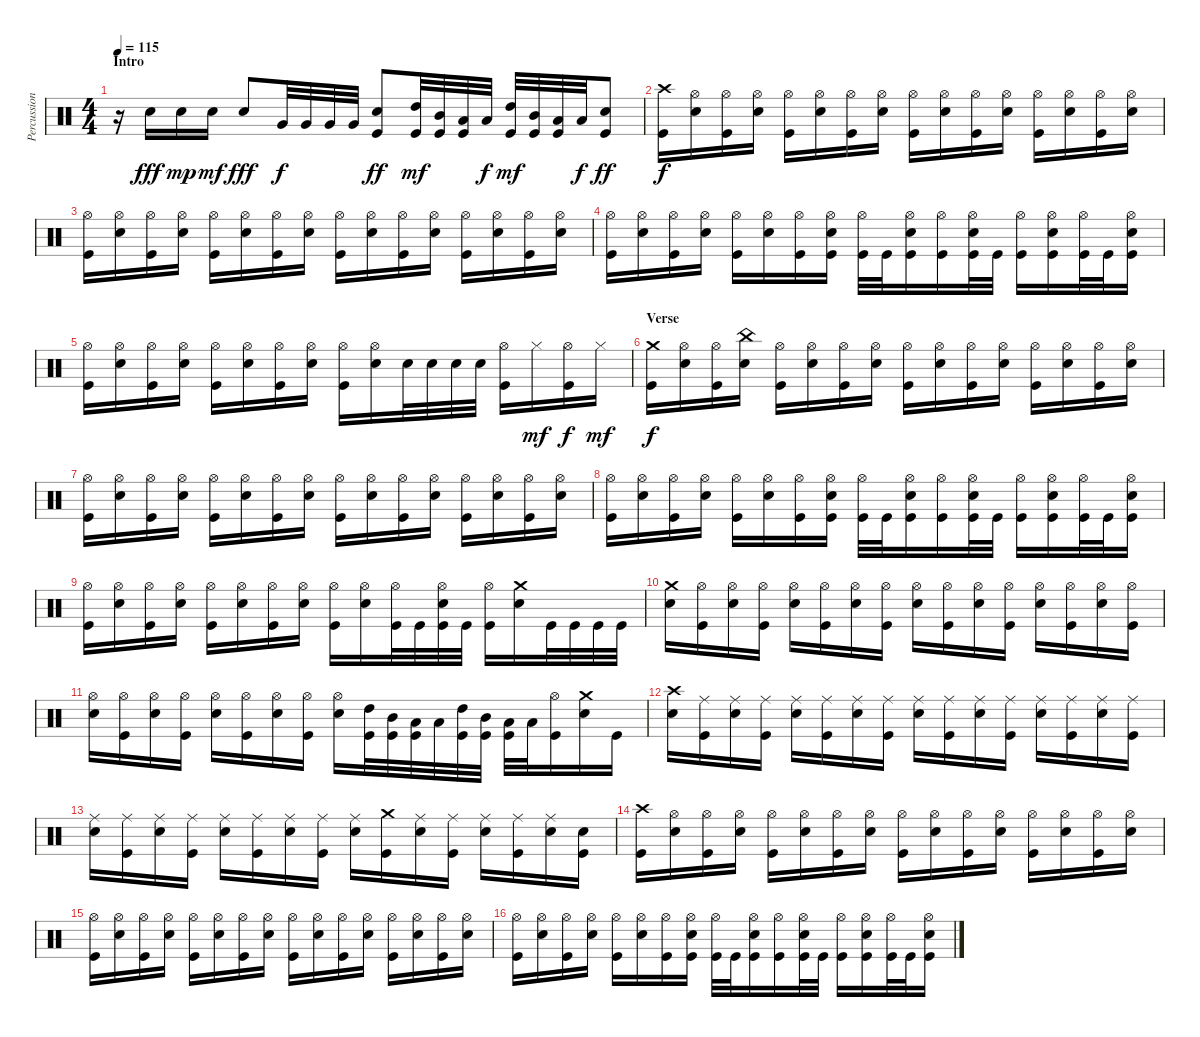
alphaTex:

\track ("Percussion" "Percussion") {instrument percussion}
\staff {score}
\articulation defaults
\ts (4 4)
\section ("" "Intro")
\tempo 115
\clef neutral
\ks c
r.16{dy fff} "Electric Snare (hit)".16 "Electric Snare (hit)".16{dy mp} "Electric Snare (hit)".16{dy mf} "Electric Snare (hit)".8{dy fff} "Very Low Tom (hit)".32{dy f} "Very Low Tom (hit)".32 "Very Low Tom (hit)".32 "Very Low Tom (hit)".32 ("Electric Snare (hit)" "Kick (hit)").8{dy ff} ("High Tom (hit)" "Kick (hit)").32{dy mf} ("Mid Tom (hit)" "Kick (hit)").32 ("Low Tom (hit)" "Kick (hit)").32 "Low Tom (hit)".32{dy f} ("High Tom (hit)" "Kick (hit)").32{dy mf} ("Mid Tom (hit)" "Kick (hit)").32 ("Low Tom (hit)" "Kick (hit)").32 "Low Tom (hit)".32{dy f} ("Electric Snare (hit)" "Kick (hit)").8{dy ff} |
("Crash high (hit)" "Kick (hit)").16{dy f} ("Hi-Hat (open)" "Electric Snare (hit)").16 ("Hi-Hat (open)" "Kick (hit)").16 ("Hi-Hat (open)" "Electric Snare (hit)").16 ("Hi-Hat (open)" "Kick (hit)").16 ("Hi-Hat (open)" "Electric Snare (hit)").16 ("Hi-Hat (open)" "Kick (hit)").16 ("Hi-Hat (open)" "Electric Snare (hit)").16 ("Hi-Hat (open)" "Kick (hit)").16 ("Hi-Hat (open)" "Electric Snare (hit)").16 ("Hi-Hat (open)" "Kick (hit)").16 ("Hi-Hat (open)" "Electric Snare (hit)").16 ("Hi-Hat (open)" "Kick (hit)").16 ("Hi-Hat (open)" "Electric Snare (hit)").16 ("Hi-Hat (open)" "Kick (hit)").16 ("Hi-Hat (open)" "Electric Snare (hit)").16 |
("Hi-Hat (open)" "Kick (hit)").16 ("Hi-Hat (open)" "Electric Snare (hit)").16 ("Hi-Hat (open)" "Kick (hit)").16 ("Hi-Hat (open)" "Electric Snare (hit)").16 ("Hi-Hat (open)" "Kick (hit)").16 ("Hi-Hat (open)" "Electric Snare (hit)").16 ("Hi-Hat (open)" "Kick (hit)").16 ("Hi-Hat (open)" "Electric Snare (hit)").16 ("Hi-Hat (open)" "Kick (hit)").16 ("Hi-Hat (open)" "Electric Snare (hit)").16 ("Hi-Hat (open)" "Kick (hit)").16 ("Hi-Hat (open)" "Electric Snare (hit)").16 ("Hi-Hat (open)" "Kick (hit)").16 ("Hi-Hat (open)" "Electric Snare (hit)").16 ("Hi-Hat (open)" "Kick (hit)").16 ("Hi-Hat (open)" "Electric Snare (hit)").16 |
("Hi-Hat (open)" "Kick (hit)").16 ("Hi-Hat (open)" "Electric Snare (hit)").16 ("Hi-Hat (open)" "Kick (hit)").16 ("Hi-Hat (open)" "Electric Snare (hit)").16 ("Hi-Hat (open)" "Kick (hit)").16 ("Hi-Hat (open)" "Electric Snare (hit)").16 ("Hi-Hat (open)" "Kick (hit)").16 ("Hi-Hat (open)" "Electric Snare (hit)" "Kick (hit)").16 ("Hi-Hat (open)" "Kick (hit)").32 "Kick (hit)".32 ("Hi-Hat (open)" "Electric Snare (hit)" "Kick (hit)").16 ("Hi-Hat (open)" "Kick (hit)").16 ("Hi-Hat (open)" "Electric Snare (hit)" "Kick (hit)").32 "Kick (hit)".32 ("Hi-Hat (open)" "Kick (hit)").16 ("Hi-Hat (open)" "Electric Snare (hit)" "Kick (hit)").16 ("Hi-Hat (open)" "Kick (hit)").32 "Kick (hit)".32 ("Hi-Hat (open)" "Electric Snare (hit)" "Kick (hit)").16 |
("Hi-Hat (open)" "Kick (hit)").16 ("Hi-Hat (open)" "Electric Snare (hit)").16 ("Hi-Hat (open)" "Kick (hit)").16 ("Hi-Hat (open)" "Electric Snare (hit)").16 ("Hi-Hat (open)" "Kick (hit)").16 ("Hi-Hat (open)" "Electric Snare (hit)").16 ("Hi-Hat (open)" "Kick (hit)").16 ("Hi-Hat (open)" "Electric Snare (hit)").16 ("Hi-Hat (open)" "Kick (hit)").16 ("Hi-Hat (open)" "Electric Snare (hit)").16 "Electric Snare (hit)".32 "Electric Snare (hit)".32 "Electric Snare (hit)".32 "Electric Snare (hit)".32 ("Hi-Hat (open)" "Kick (hit)").16 "Hi-Hat (closed)".16{dy mf} ("Hi-Hat (open)" "Kick (hit)").16{dy f} "Hi-Hat (closed)".16{dy mf} |
\section ("" "Verse")
("Crash medium (hit)" "Kick (hit)").16{dy f} ("Hi-Hat (open)" "Electric Snare (hit)").16 ("Hi-Hat (open)" "Kick (hit)").16 ("China (hit)" "Electric Snare (hit)").16 ("Hi-Hat (open)" "Kick (hit)").16 ("Hi-Hat (open)" "Electric Snare (hit)").16 ("Hi-Hat (open)" "Kick (hit)").16 ("Hi-Hat (open)" "Electric Snare (hit)").16 ("Hi-Hat (open)" "Kick (hit)").16 ("Hi-Hat (open)" "Electric Snare (hit)").16 ("Hi-Hat (open)" "Kick (hit)").16 ("Hi-Hat (open)" "Electric Snare (hit)").16 ("Hi-Hat (open)" "Kick (hit)").16 ("Hi-Hat (open)" "Electric Snare (hit)").16 ("Hi-Hat (open)" "Kick (hit)").16 ("Hi-Hat (open)" "Electric Snare (hit)").16 |
("Hi-Hat (open)" "Kick (hit)").16 ("Hi-Hat (open)" "Electric Snare (hit)").16 ("Hi-Hat (open)" "Kick (hit)").16 ("Hi-Hat (open)" "Electric Snare (hit)").16 ("Hi-Hat (open)" "Kick (hit)").16 ("Hi-Hat (open)" "Electric Snare (hit)").16 ("Hi-Hat (open)" "Kick (hit)").16 ("Hi-Hat (open)" "Electric Snare (hit)").16 ("Hi-Hat (open)" "Kick (hit)").16 ("Hi-Hat (open)" "Electric Snare (hit)").16 ("Hi-Hat (open)" "Kick (hit)").16 ("Hi-Hat (open)" "Electric Snare (hit)").16 ("Hi-Hat (open)" "Kick (hit)").16 ("Hi-Hat (open)" "Electric Snare (hit)").16 ("Hi-Hat (open)" "Kick (hit)").16 ("Hi-Hat (open)" "Electric Snare (hit)").16 |
("Hi-Hat (open)" "Kick (hit)").16 ("Hi-Hat (open)" "Electric Snare (hit)").16 ("Hi-Hat (open)" "Kick (hit)").16 ("Hi-Hat (open)" "Electric Snare (hit)").16 ("Hi-Hat (open)" "Kick (hit)").16 ("Hi-Hat (open)" "Electric Snare (hit)").16 ("Hi-Hat (open)" "Kick (hit)").16 ("Hi-Hat (open)" "Electric Snare (hit)" "Kick (hit)").16 ("Hi-Hat (open)" "Kick (hit)").32 "Kick (hit)".32 ("Hi-Hat (open)" "Electric Snare (hit)" "Kick (hit)").16 ("Hi-Hat (open)" "Kick (hit)").16 ("Hi-Hat (open)" "Electric Snare (hit)" "Kick (hit)").32 "Kick (hit)".32 ("Hi-Hat (open)" "Kick (hit)").16 ("Hi-Hat (open)" "Electric Snare (hit)" "Kick (hit)").16 ("Hi-Hat (open)" "Kick (hit)").32 "Kick (hit)".32 ("Hi-Hat (open)" "Electric Snare (hit)" "Kick (hit)").16 |
("Hi-Hat (open)" "Kick (hit)").16 ("Hi-Hat (open)" "Electric Snare (hit)").16 ("Hi-Hat (open)" "Kick (hit)").16 ("Hi-Hat (open)" "Electric Snare (hit)").16 ("Hi-Hat (open)" "Kick (hit)").16 ("Hi-Hat (open)" "Electric Snare (hit)").16 ("Hi-Hat (open)" "Kick (hit)").16 ("Hi-Hat (open)" "Electric Snare (hit)").16 ("Hi-Hat (open)" "Kick (hit)").16 ("Hi-Hat (open)" "Electric Snare (hit)").16 ("Hi-Hat (open)" "Kick (hit)").32 "Kick (hit)".32 ("Hi-Hat (open)" "Electric Snare (hit)" "Kick (hit)").32 "Kick (hit)".32 ("Hi-Hat (open)" "Kick (hit)").16 ("Crash medium (hit)" "Electric Snare (hit)").16 "Kick (hit)".32 "Kick (hit)".32 "Kick (hit)".32 "Kick (hit)".32 |
("Crash medium (hit)" "Electric Snare (hit)").16 ("Hi-Hat (open)" "Kick (hit)").16 ("Hi-Hat (open)" "Electric Snare (hit)").16 ("Hi-Hat (open)" "Kick (hit)").16 ("Hi-Hat (open)" "Electric Snare (hit)").16 ("Hi-Hat (open)" "Kick (hit)").16 ("Hi-Hat (open)" "Electric Snare (hit)").16 ("Hi-Hat (open)" "Kick (hit)").16 ("Hi-Hat (open)" "Electric Snare (hit)").16 ("Hi-Hat (open)" "Kick (hit)").16 ("Hi-Hat (open)" "Electric Snare (hit)").16 ("Hi-Hat (open)" "Kick (hit)").16 ("Hi-Hat (open)" "Electric Snare (hit)").16 ("Hi-Hat (open)" "Kick (hit)").16 ("Hi-Hat (open)" "Electric Snare (hit)").16 ("Hi-Hat (open)" "Kick (hit)").16 |
("Hi-Hat (open)" "Electric Snare (hit)").16 ("Hi-Hat (open)" "Kick (hit)").16 ("Hi-Hat (open)" "Electric Snare (hit)").16 ("Hi-Hat (open)" "Kick (hit)").16 ("Hi-Hat (open)" "Electric Snare (hit)").16 ("Hi-Hat (open)" "Kick (hit)").16 ("Hi-Hat (open)" "Electric Snare (hit)").16 ("Hi-Hat (open)" "Kick (hit)").16 ("Hi-Hat (open)" "Electric Snare (hit)").16 ("High Tom (hit)" "Kick (hit)").32 ("Mid Tom (hit)" "Kick (hit)").32 ("Low Tom (hit)" "Kick (hit)").32 "Low Tom (hit)".32 ("High Tom (hit)" "Kick (hit)").32 ("Mid Tom (hit)" "Kick (hit)").32 ("Low Tom (hit)" "Kick (hit)").32 "Low Tom (hit)".32 ("Hi-Hat (open)" "Kick (hit)").16 ("Crash medium (hit)" "Electric Snare (hit)").16 "Kick (hit)".16 |
("Crash high (hit)" "Electric Snare (hit)").16 ("Ride (middle)" "Kick (hit)").16 ("Ride (middle)" "Electric Snare (hit)").16 ("Ride (middle)" "Kick (hit)").16 ("Ride (middle)" "Electric Snare (hit)").16 ("Ride (middle)" "Kick (hit)").16 ("Ride (middle)" "Electric Snare (hit)").16 ("Ride (middle)" "Kick (hit)").16 ("Ride (middle)" "Electric Snare (hit)").16 ("Ride (middle)" "Kick (hit)").16 ("Ride (middle)" "Electric Snare (hit)").16 ("Ride (middle)" "Kick (hit)").16 ("Ride (middle)" "Electric Snare (hit)").16 ("Ride (middle)" "Kick (hit)").16 ("Ride (middle)" "Electric Snare (hit)").16 ("Ride (middle)" "Kick (hit)").16 |
("Ride (middle)" "Electric Snare (hit)").16 ("Ride (middle)" "Kick (hit)").16 ("Ride (middle)" "Electric Snare (hit)").16 ("Ride (middle)" "Kick (hit)").16 ("Ride (middle)" "Electric Snare (hit)").16 ("Ride (middle)" "Kick (hit)").16 ("Ride (middle)" "Electric Snare (hit)").16 ("Ride (middle)" "Kick (hit)").16 ("Ride (middle)" "Electric Snare (hit)").16 ("Crash medium (hit)" "Kick (hit)").16 ("Ride (middle)" "Electric Snare (hit)").16 ("Ride (middle)" "Kick (hit)").16 ("Ride (middle)" "Electric Snare (hit)").16 ("Ride (middle)" "Kick (hit)").16 ("Ride (middle)" "Electric Snare (hit)").16 ("Electric Snare (hit)" "Kick (hit)").16 |
("Crash high (hit)" "Kick (hit)").16 ("Hi-Hat (open)" "Electric Snare (hit)").16 ("Hi-Hat (open)" "Kick (hit)").16 ("Hi-Hat (open)" "Electric Snare (hit)").16 ("Hi-Hat (open)" "Kick (hit)").16 ("Hi-Hat (open)" "Electric Snare (hit)").16 ("Hi-Hat (open)" "Kick (hit)").16 ("Hi-Hat (open)" "Electric Snare (hit)").16 ("Hi-Hat (open)" "Kick (hit)").16 ("Hi-Hat (open)" "Electric Snare (hit)").16 ("Hi-Hat (open)" "Kick (hit)").16 ("Hi-Hat (open)" "Electric Snare (hit)").16 ("Hi-Hat (open)" "Kick (hit)").16 ("Hi-Hat (open)" "Electric Snare (hit)").16 ("Hi-Hat (open)" "Kick (hit)").16 ("Hi-Hat (open)" "Electric Snare (hit)").16 |
("Hi-Hat (open)" "Kick (hit)").16 ("Hi-Hat (open)" "Electric Snare (hit)").16 ("Hi-Hat (open)" "Kick (hit)").16 ("Hi-Hat (open)" "Electric Snare (hit)").16 ("Hi-Hat (open)" "Kick (hit)").16 ("Hi-Hat (open)" "Electric Snare (hit)").16 ("Hi-Hat (open)" "Kick (hit)").16 ("Hi-Hat (open)" "Electric Snare (hit)").16 ("Hi-Hat (open)" "Kick (hit)").16 ("Hi-Hat (open)" "Electric Snare (hit)").16 ("Hi-Hat (open)" "Kick (hit)").16 ("Hi-Hat (open)" "Electric Snare (hit)").16 ("Hi-Hat (open)" "Kick (hit)").16 ("Hi-Hat (open)" "Electric Snare (hit)").16 ("Hi-Hat (open)" "Kick (hit)").16 ("Hi-Hat (open)" "Electric Snare (hit)").16 |
("Hi-Hat (open)" "Kick (hit)").16 ("Hi-Hat (open)" "Electric Snare (hit)").16 ("Hi-Hat (open)" "Kick (hit)").16 ("Hi-Hat (open)" "Electric Snare (hit)").16 ("Hi-Hat (open)" "Kick (hit)").16 ("Hi-Hat (open)" "Electric Snare (hit)").16 ("Hi-Hat (open)" "Kick (hit)").16 ("Hi-Hat (open)" "Electric Snare (hit)" "Kick (hit)").16 ("Hi-Hat (open)" "Kick (hit)").32 "Kick (hit)".32 ("Hi-Hat (open)" "Electric Snare (hit)" "Kick (hit)").16 ("Hi-Hat (open)" "Kick (hit)").16 ("Hi-Hat (open)" "Electric Snare (hit)" "Kick (hit)").32 "Kick (hit)".32 ("Hi-Hat (open)" "Kick (hit)").16 ("Hi-Hat (open)" "Electric Snare (hit)" "Kick (hit)").16 ("Hi-Hat (open)" "Kick (hit)").32 "Kick (hit)".32 ("Hi-Hat (open)" "Electric Snare (hit)" "Kick (hit)").16
